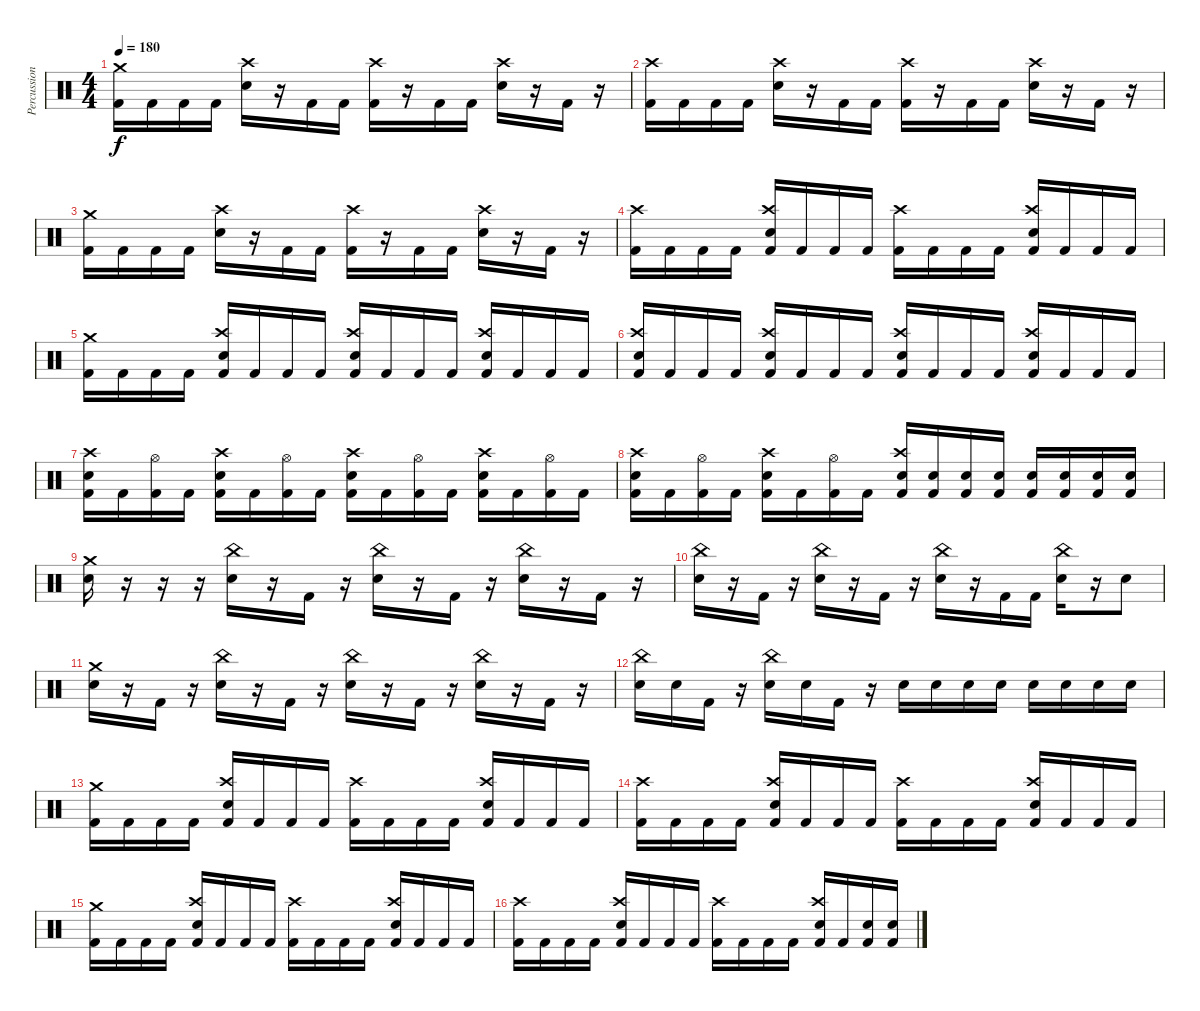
\track ("Percussions" "Percussion") {instrument percussion}
\staff {score}
\articulation defaults
\ts (4 4)
\tempo 180
\clef neutral
\ks c
("Crash medium (hit)" "Kick (hit) 2").16{dy f} "Kick (hit) 2".16 "Kick (hit) 2".16 "Kick (hit) 2".16 ("Crash high (hit)" "Snare (hit) 2").16 r.16 "Kick (hit) 2".16 "Kick (hit) 2".16 ("Crash high (hit)" "Kick (hit) 2").16 r.16 "Kick (hit) 2".16 "Kick (hit) 2".16 ("Crash high (hit)" "Snare (hit) 2").16 r.16 "Kick (hit) 2".16 r.16 |
("Crash high (hit)" "Kick (hit) 2").16 "Kick (hit) 2".16 "Kick (hit) 2".16 "Kick (hit) 2".16 ("Crash high (hit)" "Snare (hit) 2").16 r.16 "Kick (hit) 2".16 "Kick (hit) 2".16 ("Crash high (hit)" "Kick (hit) 2").16 r.16 "Kick (hit) 2".16 "Kick (hit) 2".16 ("Crash high (hit)" "Snare (hit) 2").16 r.16 "Kick (hit) 2".16 r.16 |
("Crash medium (hit)" "Kick (hit) 2").16 "Kick (hit) 2".16 "Kick (hit) 2".16 "Kick (hit) 2".16 ("Crash high (hit)" "Snare (hit) 2").16 r.16 "Kick (hit) 2".16 "Kick (hit) 2".16 ("Crash high (hit)" "Kick (hit) 2").16 r.16 "Kick (hit) 2".16 "Kick (hit) 2".16 ("Crash high (hit)" "Snare (hit) 2").16 r.16 "Kick (hit) 2".16 r.16 |
("Crash high (hit)" "Kick (hit) 2").16 "Kick (hit) 2".16 "Kick (hit) 2".16 "Kick (hit) 2".16 ("Crash high (hit)" "Snare (hit) 2" "Kick (hit) 2").16 "Kick (hit) 2".16 "Kick (hit) 2".16 "Kick (hit) 2".16 ("Crash high (hit)" "Kick (hit) 2").16 "Kick (hit) 2".16 "Kick (hit) 2".16 "Kick (hit) 2".16 ("Crash high (hit)" "Snare (hit) 2" "Kick (hit) 2").16 "Kick (hit) 2".16 "Kick (hit) 2".16 "Kick (hit) 2".16 |
("Crash medium (hit)" "Kick (hit) 2").16 "Kick (hit) 2".16 "Kick (hit) 2".16 "Kick (hit) 2".16 ("Crash high (hit)" "Snare (hit) 2" "Kick (hit) 2").16 "Kick (hit) 2".16 "Kick (hit) 2".16 "Kick (hit) 2".16 ("Crash high (hit)" "Snare (hit) 2" "Kick (hit) 2").16 "Kick (hit) 2".16 "Kick (hit) 2".16 "Kick (hit) 2".16 ("Crash high (hit)" "Snare (hit) 2" "Kick (hit) 2").16 "Kick (hit) 2".16 "Kick (hit) 2".16 "Kick (hit) 2".16 |
("Crash high (hit)" "Snare (hit) 2" "Kick (hit) 2").16 "Kick (hit) 2".16 "Kick (hit) 2".16 "Kick (hit) 2".16 ("Crash high (hit)" "Snare (hit) 2" "Kick (hit) 2").16 "Kick (hit) 2".16 "Kick (hit) 2".16 "Kick (hit) 2".16 ("Crash high (hit)" "Snare (hit) 2" "Kick (hit) 2").16 "Kick (hit) 2".16 "Kick (hit) 2".16 "Kick (hit) 2".16 ("Crash high (hit)" "Snare (hit) 2" "Kick (hit) 2").16 "Kick (hit) 2".16 "Kick (hit) 2".16 "Kick (hit) 2".16 |
("Crash high (hit)" "Snare (hit) 2" "Kick (hit) 2").16 "Kick (hit) 2".16 ("Hi-Hat (open)" "Kick (hit) 2").16 "Kick (hit) 2".16 ("Crash high (hit)" "Snare (hit) 2" "Kick (hit) 2").16 "Kick (hit) 2".16 ("Hi-Hat (open)" "Kick (hit) 2").16 "Kick (hit) 2".16 ("Crash high (hit)" "Snare (hit) 2" "Kick (hit) 2").16 "Kick (hit) 2".16 ("Hi-Hat (open)" "Kick (hit) 2").16 "Kick (hit) 2".16 ("Crash high (hit)" "Snare (hit) 2" "Kick (hit) 2").16 "Kick (hit) 2".16 ("Hi-Hat (open)" "Kick (hit) 2").16 "Kick (hit) 2".16 |
("Crash high (hit)" "Snare (hit) 2" "Kick (hit) 2").16 "Kick (hit) 2".16 ("Hi-Hat (open)" "Kick (hit) 2").16 "Kick (hit) 2".16 ("Crash high (hit)" "Snare (hit) 2" "Kick (hit) 2").16 "Kick (hit) 2".16 ("Hi-Hat (open)" "Kick (hit) 2").16 "Kick (hit) 2".16 ("Crash high (hit)" "Snare (hit) 2" "Kick (hit) 2").16 ("Snare (hit) 2" "Kick (hit) 2").16 ("Snare (hit) 2" "Kick (hit) 2").16 ("Snare (hit) 2" "Kick (hit) 2").16 ("Snare (hit) 2" "Kick (hit) 2").16 ("Snare (hit) 2" "Kick (hit) 2").16 ("Snare (hit) 2" "Kick (hit) 2").16 ("Snare (hit) 2" "Kick (hit) 2").16 |
("Crash medium (hit)" "Snare (hit) 2").16 r.16 r.16 r.16 ("China (hit)" "Snare (hit) 2").16 r.16 "Kick (hit) 2".16 r.16 ("China (hit)" "Snare (hit) 2").16 r.16 "Kick (hit) 2".16 r.16 ("China (hit)" "Snare (hit) 2").16 r.16 "Kick (hit) 2".16 r.16 |
("China (hit)" "Snare (hit) 2").16 r.16 "Kick (hit) 2".16 r.16 ("China (hit)" "Snare (hit) 2").16 r.16 "Kick (hit) 2".16 r.16 ("China (hit)" "Snare (hit) 2").16 r.16 "Kick (hit) 2".16 "Kick (hit) 2".16 ("China (hit)" "Snare (hit) 2").16 r.16 "Snare (hit) 2".8 |
("Crash medium (hit)" "Snare (hit) 2").16 r.16 "Kick (hit) 2".16 r.16 ("China (hit)" "Snare (hit) 2").16 r.16 "Kick (hit) 2".16 r.16 ("China (hit)" "Snare (hit) 2").16 r.16 "Kick (hit) 2".16 r.16 ("China (hit)" "Snare (hit) 2").16 r.16 "Kick (hit) 2".16 r.16 |
("China (hit)" "Snare (hit) 2").16 "Snare (hit) 2".16 "Kick (hit) 2".16 r.16 ("China (hit)" "Snare (hit) 2").16 "Snare (hit) 2".16 "Kick (hit) 2".16 r.16 "Snare (hit) 2".16 "Snare (hit) 2".16 "Snare (hit) 2".16 "Snare (hit) 2".16 "Snare (hit) 2".16 "Snare (hit) 2".16 "Snare (hit) 2".16 "Snare (hit) 2".16 |
("Crash medium (hit)" "Kick (hit) 2").16 "Kick (hit) 2".16 "Kick (hit) 2".16 "Kick (hit) 2".16 ("Crash high (hit)" "Snare (hit) 2" "Kick (hit) 2").16 "Kick (hit) 2".16 "Kick (hit) 2".16 "Kick (hit) 2".16 ("Crash high (hit)" "Kick (hit) 2").16 "Kick (hit) 2".16 "Kick (hit) 2".16 "Kick (hit) 2".16 ("Crash high (hit)" "Snare (hit) 2" "Kick (hit) 2").16 "Kick (hit) 2".16 "Kick (hit) 2".16 "Kick (hit) 2".16 |
("Crash high (hit)" "Kick (hit) 2").16 "Kick (hit) 2".16 "Kick (hit) 2".16 "Kick (hit) 2".16 ("Crash high (hit)" "Snare (hit) 2" "Kick (hit) 2").16 "Kick (hit) 2".16 "Kick (hit) 2".16 "Kick (hit) 2".16 ("Crash high (hit)" "Kick (hit) 2").16 "Kick (hit) 2".16 "Kick (hit) 2".16 "Kick (hit) 2".16 ("Crash high (hit)" "Snare (hit) 2" "Kick (hit) 2").16 "Kick (hit) 2".16 "Kick (hit) 2".16 "Kick (hit) 2".16 |
("Crash medium (hit)" "Kick (hit) 2").16 "Kick (hit) 2".16 "Kick (hit) 2".16 "Kick (hit) 2".16 ("Crash high (hit)" "Snare (hit) 2" "Kick (hit) 2").16 "Kick (hit) 2".16 "Kick (hit) 2".16 "Kick (hit) 2".16 ("Crash high (hit)" "Kick (hit) 2").16 "Kick (hit) 2".16 "Kick (hit) 2".16 "Kick (hit) 2".16 ("Crash high (hit)" "Snare (hit) 2" "Kick (hit) 2").16 "Kick (hit) 2".16 "Kick (hit) 2".16 "Kick (hit) 2".16 |
("Crash high (hit)" "Kick (hit) 2").16 "Kick (hit) 2".16 "Kick (hit) 2".16 "Kick (hit) 2".16 ("Crash high (hit)" "Snare (hit) 2" "Kick (hit) 2").16 "Kick (hit) 2".16 "Kick (hit) 2".16 "Kick (hit) 2".16 ("Crash high (hit)" "Kick (hit) 2").16 "Kick (hit) 2".16 "Kick (hit) 2".16 "Kick (hit) 2".16 ("Crash high (hit)" "Snare (hit) 2" "Kick (hit) 2").16 "Kick (hit) 2".16 ("Snare (hit) 2" "Kick (hit) 2").16 ("Snare (hit) 2" "Kick (hit) 2").16
